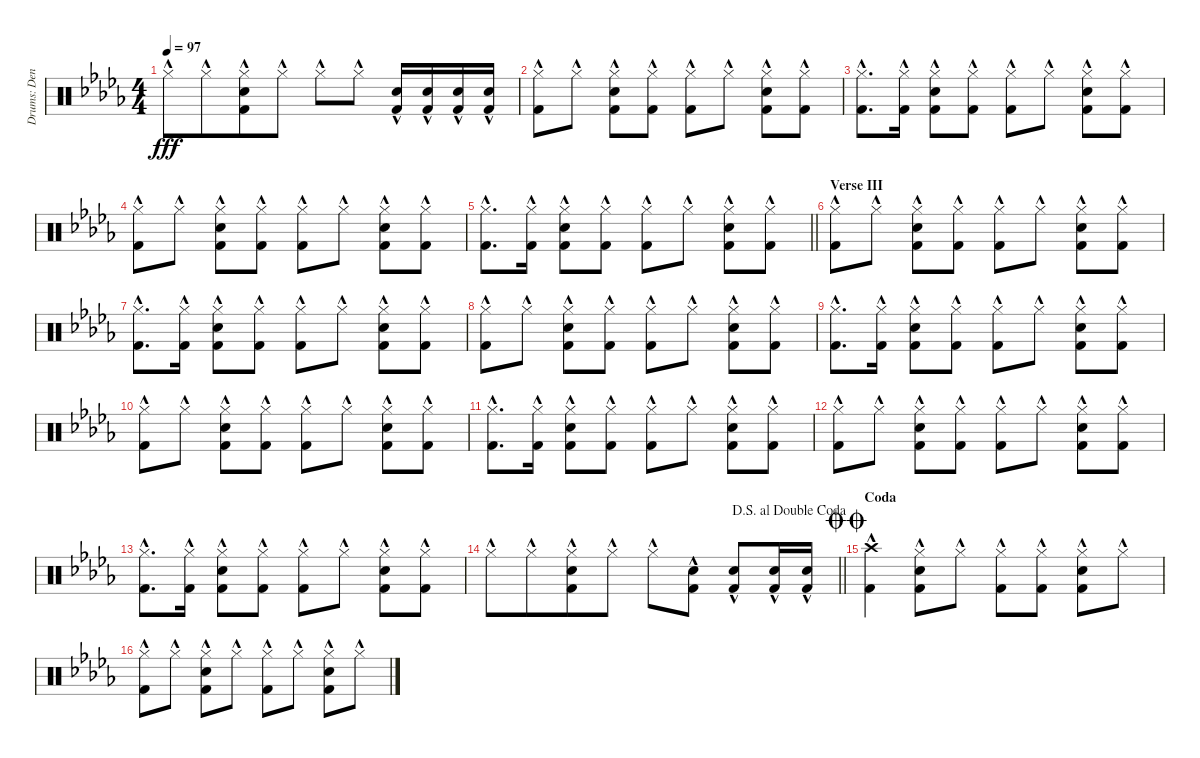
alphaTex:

\track ("Drums: Denny" "Drums: Den") {instrument percussion}
\staff {score}
\articulation defaults
\ts (4 4)
\tempo 97
\clef neutral
\ks db "Hi-Hat (closed)"{hac}.8{dy fff} "Hi-Hat (closed)"{hac}.8{beam merge}
("Hi-Hat (closed)"{hac} "Snare (hit) 2"{hac} "Kick (hit) 2"{hac}).8 "Hi-Hat (closed)"{hac}.8 "Hi-Hat (closed)"{hac}.8 "Hi-Hat (closed)"{hac}.8 ("Snare (hit) 2"{hac} "Kick (hit) 2"{hac}).16 ("Snare (hit) 2"{hac} "Kick (hit) 2"{hac}).16 ("Snare (hit) 2"{hac} "Kick (hit) 2"{hac}).16 ("Snare (hit) 2"{hac} "Kick (hit) 2"{hac}).16 |
("Hi-Hat (closed)"{hac} "Kick (hit) 2"{hac}).8 "Hi-Hat (closed)"{hac}.8 ("Hi-Hat (closed)"{hac} "Snare (hit) 2"{hac} "Kick (hit) 2"{hac}).8 ("Hi-Hat (closed)"{hac} "Kick (hit) 2"{hac}).8 ("Hi-Hat (closed)"{hac} "Kick (hit) 2"{hac}).8 "Hi-Hat (closed)"{hac}.8 ("Hi-Hat (closed)"{hac} "Snare (hit) 2"{hac} "Kick (hit) 2"{hac}).8 ("Hi-Hat (closed)"{hac} "Kick (hit) 2"{hac}).8 |
("Hi-Hat (closed)"{hac} "Kick (hit) 2"{hac}).8{d} ("Hi-Hat (closed)"{hac} "Kick (hit) 2"{hac}).16 ("Hi-Hat (closed)"{hac} "Snare (hit) 2"{hac} "Kick (hit) 2"{hac}).8 ("Hi-Hat (closed)"{hac} "Kick (hit) 2"{hac}).8 ("Hi-Hat (closed)"{hac} "Kick (hit) 2"{hac}).8 "Hi-Hat (closed)"{hac}.8 ("Hi-Hat (closed)"{hac} "Snare (hit) 2"{hac} "Kick (hit) 2"{hac}).8 ("Hi-Hat (closed)"{hac} "Kick (hit) 2"{hac}).8 |
("Hi-Hat (closed)"{hac} "Kick (hit) 2"{hac}).8 "Hi-Hat (closed)"{hac}.8 ("Hi-Hat (closed)"{hac} "Snare (hit) 2"{hac} "Kick (hit) 2"{hac}).8 ("Hi-Hat (closed)"{hac} "Kick (hit) 2"{hac}).8 ("Hi-Hat (closed)"{hac} "Kick (hit) 2"{hac}).8 "Hi-Hat (closed)"{hac}.8 ("Hi-Hat (closed)"{hac} "Snare (hit) 2"{hac} "Kick (hit) 2"{hac}).8 ("Hi-Hat (closed)"{hac} "Kick (hit) 2"{hac}).8 |
\barLineRight lightlight
("Hi-Hat (closed)"{hac} "Kick (hit) 2"{hac}).8{d} ("Hi-Hat (closed)"{hac} "Kick (hit) 2"{hac}).16 ("Hi-Hat (closed)"{hac} "Snare (hit) 2"{hac} "Kick (hit) 2"{hac}).8 ("Hi-Hat (closed)"{hac} "Kick (hit) 2"{hac}).8 ("Hi-Hat (closed)"{hac} "Kick (hit) 2"{hac}).8 "Hi-Hat (closed)"{hac}.8 ("Hi-Hat (closed)"{hac} "Snare (hit) 2"{hac} "Kick (hit) 2"{hac}).8 ("Hi-Hat (closed)"{hac} "Kick (hit) 2"{hac}).8 |
\section ("" "Verse III")
("Hi-Hat (closed)"{hac} "Kick (hit) 2"{hac}).8 "Hi-Hat (closed)"{hac}.8 ("Hi-Hat (closed)"{hac} "Snare (hit) 2"{hac} "Kick (hit) 2"{hac}).8 ("Hi-Hat (closed)"{hac} "Kick (hit) 2"{hac}).8 ("Hi-Hat (closed)"{hac} "Kick (hit) 2"{hac}).8 "Hi-Hat (closed)"{hac}.8 ("Hi-Hat (closed)"{hac} "Snare (hit) 2"{hac} "Kick (hit) 2"{hac}).8 ("Hi-Hat (closed)"{hac} "Kick (hit) 2"{hac}).8 |
("Hi-Hat (closed)"{hac} "Kick (hit) 2"{hac}).8{d} ("Hi-Hat (closed)"{hac} "Kick (hit) 2"{hac}).16 ("Hi-Hat (closed)"{hac} "Snare (hit) 2"{hac} "Kick (hit) 2"{hac}).8 ("Hi-Hat (closed)"{hac} "Kick (hit) 2"{hac}).8 ("Hi-Hat (closed)"{hac} "Kick (hit) 2"{hac}).8 "Hi-Hat (closed)"{hac}.8 ("Hi-Hat (closed)"{hac} "Snare (hit) 2"{hac} "Kick (hit) 2"{hac}).8 ("Hi-Hat (closed)"{hac} "Kick (hit) 2"{hac}).8 |
("Hi-Hat (closed)"{hac} "Kick (hit) 2"{hac}).8 "Hi-Hat (closed)"{hac}.8 ("Hi-Hat (closed)"{hac} "Snare (hit) 2"{hac} "Kick (hit) 2"{hac}).8 ("Hi-Hat (closed)"{hac} "Kick (hit) 2"{hac}).8 ("Hi-Hat (closed)"{hac} "Kick (hit) 2"{hac}).8 "Hi-Hat (closed)"{hac}.8 ("Hi-Hat (closed)"{hac} "Snare (hit) 2"{hac} "Kick (hit) 2"{hac}).8 ("Hi-Hat (closed)"{hac} "Kick (hit) 2"{hac}).8 |
("Hi-Hat (closed)"{hac} "Kick (hit) 2"{hac}).8{d} ("Hi-Hat (closed)"{hac} "Kick (hit) 2"{hac}).16 ("Hi-Hat (closed)"{hac} "Snare (hit) 2"{hac} "Kick (hit) 2"{hac}).8 ("Hi-Hat (closed)"{hac} "Kick (hit) 2"{hac}).8 ("Hi-Hat (closed)"{hac} "Kick (hit) 2"{hac}).8 "Hi-Hat (closed)"{hac}.8 ("Hi-Hat (closed)"{hac} "Snare (hit) 2"{hac} "Kick (hit) 2"{hac}).8 ("Hi-Hat (closed)"{hac} "Kick (hit) 2"{hac}).8 |
("Hi-Hat (closed)"{hac} "Kick (hit) 2"{hac}).8 "Hi-Hat (closed)"{hac}.8 ("Hi-Hat (closed)"{hac} "Snare (hit) 2"{hac} "Kick (hit) 2"{hac}).8 ("Hi-Hat (closed)"{hac} "Kick (hit) 2"{hac}).8 ("Hi-Hat (closed)"{hac} "Kick (hit) 2"{hac}).8 "Hi-Hat (closed)"{hac}.8 ("Hi-Hat (closed)"{hac} "Snare (hit) 2"{hac} "Kick (hit) 2"{hac}).8 ("Hi-Hat (closed)"{hac} "Kick (hit) 2"{hac}).8 |
("Hi-Hat (closed)"{hac} "Kick (hit) 2"{hac}).8{d} ("Hi-Hat (closed)"{hac} "Kick (hit) 2"{hac}).16 ("Hi-Hat (closed)"{hac} "Snare (hit) 2"{hac} "Kick (hit) 2"{hac}).8 ("Hi-Hat (closed)"{hac} "Kick (hit) 2"{hac}).8 ("Hi-Hat (closed)"{hac} "Kick (hit) 2"{hac}).8 "Hi-Hat (closed)"{hac}.8 ("Hi-Hat (closed)"{hac} "Snare (hit) 2"{hac} "Kick (hit) 2"{hac}).8 ("Hi-Hat (closed)"{hac} "Kick (hit) 2"{hac}).8 |
("Hi-Hat (closed)"{hac} "Kick (hit) 2"{hac}).8 "Hi-Hat (closed)"{hac}.8 ("Hi-Hat (closed)"{hac} "Snare (hit) 2"{hac} "Kick (hit) 2"{hac}).8 ("Hi-Hat (closed)"{hac} "Kick (hit) 2"{hac}).8 ("Hi-Hat (closed)"{hac} "Kick (hit) 2"{hac}).8 "Hi-Hat (closed)"{hac}.8 ("Hi-Hat (closed)"{hac} "Snare (hit) 2"{hac} "Kick (hit) 2"{hac}).8 ("Hi-Hat (closed)"{hac} "Kick (hit) 2"{hac}).8 |
("Hi-Hat (closed)"{hac} "Kick (hit) 2"{hac}).8{d} ("Hi-Hat (closed)"{hac} "Kick (hit) 2"{hac}).16 ("Hi-Hat (closed)"{hac} "Snare (hit) 2"{hac} "Kick (hit) 2"{hac}).8 ("Hi-Hat (closed)"{hac} "Kick (hit) 2"{hac}).8 ("Hi-Hat (closed)"{hac} "Kick (hit) 2"{hac}).8 "Hi-Hat (closed)"{hac}.8 ("Hi-Hat (closed)"{hac} "Snare (hit) 2"{hac} "Kick (hit) 2"{hac}).8 ("Hi-Hat (closed)"{hac} "Kick (hit) 2"{hac}).8 |
\jump dalsegnoaldoublecoda
\barLineRight lightlight "Hi-Hat (closed)"{hac}.8 "Hi-Hat (closed)"{hac}.8{beam merge}
("Hi-Hat (closed)"{hac} "Snare (hit) 2"{hac} "Kick (hit) 2"{hac}).8 "Hi-Hat (closed)"{hac}.8 "Hi-Hat (closed)"{hac}.8 ("Snare (hit) 2"{hac} "Kick (hit) 2"{hac}).8 ("Snare (hit) 2"{hac} "Kick (hit) 2"{hac}).8 ("Snare (hit) 2"{hac} "Kick (hit) 2"{hac}).16 ("Snare (hit) 2"{hac} "Kick (hit) 2"{hac}).16 |
\section ("" "Coda")
\jump doublecoda
("Crash high (hit)"{hac} "Kick (hit) 2"{hac}).4 ("Hi-Hat (closed)"{hac} "Snare (hit) 2"{hac} "Kick (hit) 2"{hac}).8 "Hi-Hat (closed)"{hac}.8 ("Hi-Hat (closed)"{hac} "Kick (hit) 2"{hac}).8 ("Hi-Hat (closed)"{hac} "Kick (hit) 2"{hac}).8 ("Hi-Hat (closed)"{hac} "Snare (hit) 2"{hac} "Kick (hit) 2"{hac}).8 "Hi-Hat (closed)"{hac}.8 |
("Hi-Hat (closed)"{hac} "Kick (hit) 2"{hac}).8 "Hi-Hat (closed)"{hac}.8 ("Hi-Hat (closed)"{hac} "Snare (hit) 2"{hac} "Kick (hit) 2"{hac}).8 "Hi-Hat (closed)"{hac}.8 ("Hi-Hat (closed)"{hac} "Kick (hit) 2"{hac}).8 "Hi-Hat (closed)"{hac}.8 ("Hi-Hat (closed)"{hac} "Snare (hit) 2"{hac} "Kick (hit) 2"{hac}).8 "Hi-Hat (closed)"{hac}.8
